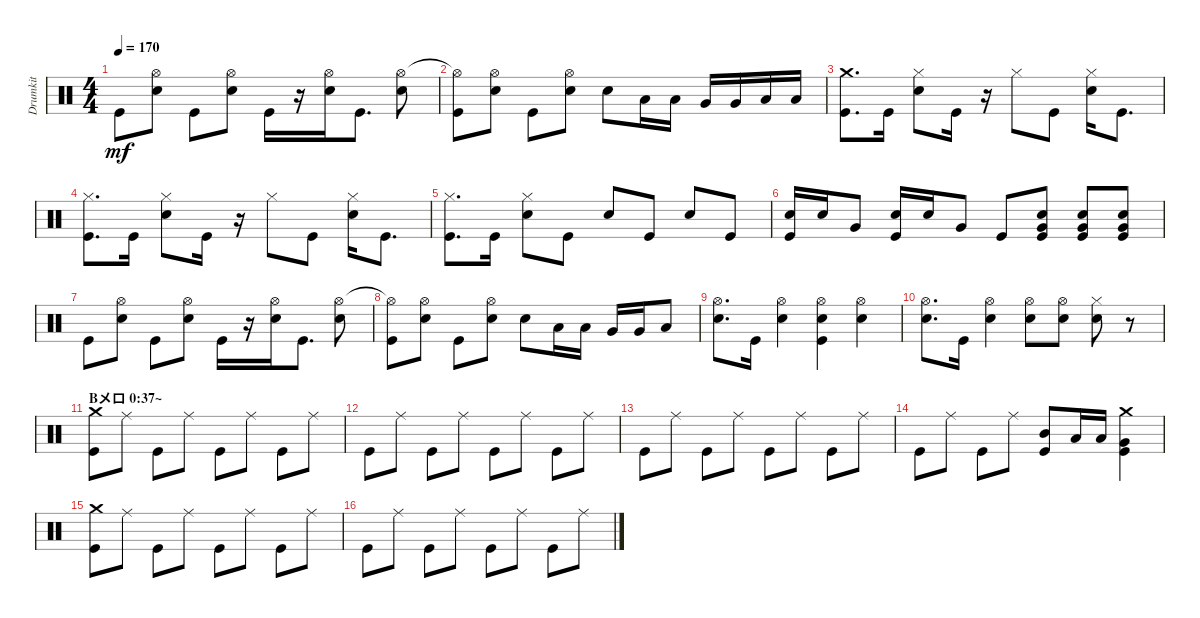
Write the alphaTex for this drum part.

\track ("Drumkit" "Drumkit") {instrument percussion}
\staff {score}
\articulation defaults
\ts (4 4)
\tempo 170
\clef neutral
\ks c "Kick (hit)".8{dy mf}
("Snare (hit) 2" "Hi-Hat (open)").8 "Kick (hit)".8 ("Snare (hit) 2" "Hi-Hat (open)").8 "Kick (hit)".16 r.16 ("Snare (hit) 2" "Hi-Hat (open)").16 "Kick (hit)".8{d} ("Snare (hit) 2" "Hi-Hat (open)").8 |
("Kick (hit)" "Hi-Hat (open)"{t}).8 ("Snare (hit) 2" "Hi-Hat (open)").8 "Kick (hit)".8 ("Snare (hit) 2" "Hi-Hat (open)").8 "Snare (hit) 2".8 "Low Tom (hit)".16 "Low Tom (hit)".16 "Very Low Tom (hit)".16 "Very Low Tom (hit)".16 "Low Floor Tom (hit)".16 "Low Floor Tom (hit)".16 |
("Kick (hit)" "Crash medium (hit)").8{d} "Kick (hit)".16 ("Snare (hit) 2" "Hi-Hat (closed)").8 "Kick (hit)".16 r.16 "Hi-Hat (closed)".8 "Kick (hit)".8 ("Snare (hit) 2" "Hi-Hat (closed)").16 "Kick (hit)".8{d} |
("Kick (hit)" "Hi-Hat (closed)").8{d} "Kick (hit)".16 ("Snare (hit) 2" "Hi-Hat (closed)").8 "Kick (hit)".16 r.16 "Hi-Hat (closed)".8 "Kick (hit)".8 ("Snare (hit) 2" "Hi-Hat (closed)").16 "Kick (hit)".8{d} |
("Kick (hit)" "Hi-Hat (closed)").8{d} "Kick (hit)".16 ("Snare (hit) 2" "Hi-Hat (closed)").8 "Kick (hit)".8 "Snare (hit) 2".8 "Kick (hit)".8 "Snare (hit) 2".8 "Kick (hit)".8 |
("Kick (hit)" "Snare (hit) 2").16 "Snare (hit) 2".16 "Very Low Tom (hit)".8 ("Kick (hit)" "Snare (hit) 2").16 "Snare (hit) 2".16 "Very Low Tom (hit)".8 "Kick (hit)".8 ("Very Low Tom (hit)" "Snare (hit) 2" "Kick (hit)").8 ("Snare (hit) 2" "Very Low Tom (hit)" "Kick (hit)").8 ("Snare (hit) 2" "Very Low Tom (hit)" "Kick (hit)").8 |
"Kick (hit)".8 ("Snare (hit) 2" "Hi-Hat (open)").8 "Kick (hit)".8 ("Snare (hit) 2" "Hi-Hat (open)").8 "Kick (hit)".16 r.16 ("Snare (hit) 2" "Hi-Hat (open)").16 "Kick (hit)".8{d} ("Snare (hit) 2" "Hi-Hat (open)").8 |
("Kick (hit)" "Hi-Hat (open)"{t}).8 ("Snare (hit) 2" "Hi-Hat (open)").8 "Kick (hit)".8 ("Snare (hit) 2" "Hi-Hat (open)").8 "Snare (hit) 2".8 "Low Tom (hit)".16 "Low Tom (hit)".16 "Very Low Tom (hit)".16 "Very Low Tom (hit)".16 "Low Floor Tom (hit)".8 |
("Snare (hit) 2" "Hi-Hat (open)").8{d} "Kick (hit)".16 ("Snare (hit) 2" "Hi-Hat (open)").4 ("Snare (hit) 2" "Hi-Hat (open)" "Kick (hit)").4 ("Snare (hit) 2" "Hi-Hat (open)").4 |
("Snare (hit) 2" "Hi-Hat (open)").8{d} "Kick (hit)".16 ("Snare (hit) 2" "Hi-Hat (open)").4 ("Snare (hit) 2" "Hi-Hat (open)").8 ("Snare (hit) 2" "Hi-Hat (open)").8 ("Snare (hit) 2" "Hi-Hat (closed)").8 r.8 |
\section ("" "Bメロ 0:37~")
("Kick (hit)" "Crash medium (hit)").8 "Ride (middle)".8 "Kick (hit)".8 "Ride (middle)".8 "Kick (hit)".8 "Ride (middle)".8 "Kick (hit)".8 "Ride (middle)".8 |
"Kick (hit)".8 "Ride (middle)".8 "Kick (hit)".8 "Ride (middle)".8 "Kick (hit)".8 "Ride (middle)".8 "Kick (hit)".8 "Ride (middle)".8 |
"Kick (hit)".8 "Ride (middle)".8 "Kick (hit)".8 "Ride (middle)".8 "Kick (hit)".8 "Ride (middle)".8 "Kick (hit)".8 "Ride (middle)".8 |
"Kick (hit)".8 "Ride (middle)".8 "Kick (hit)".8 "Ride (middle)".8 ("Kick (hit)" "Mid Tom (hit)").8 "Low Tom (hit)".16 "Low Tom (hit)".16 ("Very Low Tom (hit)" "Crash medium (hit)" "Kick (hit)").4 |
("Kick (hit)" "Crash medium (hit)").8 "Ride (middle)".8 "Kick (hit)".8 "Ride (middle)".8 "Kick (hit)".8 "Ride (middle)".8 "Kick (hit)".8 "Ride (middle)".8 |
"Kick (hit)".8 "Ride (middle)".8 "Kick (hit)".8 "Ride (middle)".8 "Kick (hit)".8 "Ride (middle)".8 "Kick (hit)".8 "Ride (middle)".8
